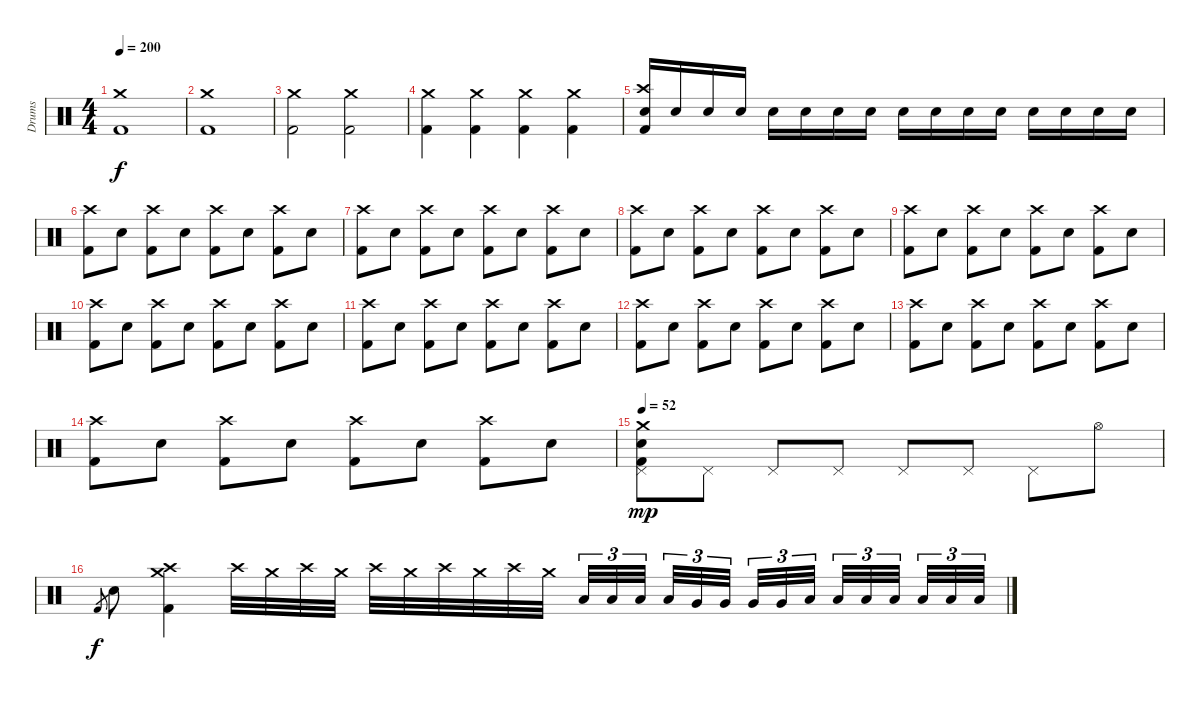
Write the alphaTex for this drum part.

\track ("Drums" "Drums") {instrument percussion}
\staff {score}
\articulation defaults
\ts (4 4)
\tempo 200
\clef neutral
\ks c
("Crash medium (hit)" "Kick (hit) 2").1{dy f} |
("Crash medium (hit)" "Kick (hit) 2").1 |
("Crash medium (hit)" "Kick (hit) 2").2 ("Crash medium (hit)" "Kick (hit) 2").2 |
("Crash medium (hit)" "Kick (hit) 2").4 ("Crash medium (hit)" "Kick (hit) 2").4 ("Crash medium (hit)" "Kick (hit) 2").4 ("Crash medium (hit)" "Kick (hit) 2").4 |
("Crash high (hit)" "Electric Snare (hit)" "Kick (hit) 2").16 "Electric Snare (hit)".16 "Electric Snare (hit)".16 "Electric Snare (hit)".16 "Electric Snare (hit)".16 "Electric Snare (hit)".16 "Electric Snare (hit)".16 "Electric Snare (hit)".16 "Electric Snare (hit)".16 "Electric Snare (hit)".16 "Electric Snare (hit)".16 "Electric Snare (hit)".16 "Electric Snare (hit)".16 "Electric Snare (hit)".16 "Electric Snare (hit)".16 "Electric Snare (hit)".16 |
("Crash high (hit)" "Kick (hit) 2").8 "Electric Snare (hit)".8 ("Crash high (hit)" "Kick (hit) 2").8 "Electric Snare (hit)".8 ("Crash high (hit)" "Kick (hit) 2").8 "Electric Snare (hit)".8 ("Crash high (hit)" "Kick (hit) 2").8 "Electric Snare (hit)".8 |
("Crash high (hit)" "Kick (hit) 2").8 "Electric Snare (hit)".8 ("Crash high (hit)" "Kick (hit) 2").8 "Electric Snare (hit)".8 ("Crash high (hit)" "Kick (hit) 2").8 "Electric Snare (hit)".8 ("Crash high (hit)" "Kick (hit) 2").8 "Electric Snare (hit)".8 |
("Crash high (hit)" "Kick (hit) 2").8 "Electric Snare (hit)".8 ("Crash high (hit)" "Kick (hit) 2").8 "Electric Snare (hit)".8 ("Crash high (hit)" "Kick (hit) 2").8 "Electric Snare (hit)".8 ("Crash high (hit)" "Kick (hit) 2").8 "Electric Snare (hit)".8 |
("Crash high (hit)" "Kick (hit) 2").8 "Electric Snare (hit)".8 ("Crash high (hit)" "Kick (hit) 2").8 "Electric Snare (hit)".8 ("Crash high (hit)" "Kick (hit) 2").8 "Electric Snare (hit)".8 ("Crash high (hit)" "Kick (hit) 2").8 "Electric Snare (hit)".8 |
("Crash high (hit)" "Kick (hit) 2").8 "Electric Snare (hit)".8 ("Crash high (hit)" "Kick (hit) 2").8 "Electric Snare (hit)".8 ("Crash high (hit)" "Kick (hit) 2").8 "Electric Snare (hit)".8 ("Crash high (hit)" "Kick (hit) 2").8 "Electric Snare (hit)".8 |
("Crash high (hit)" "Kick (hit) 2").8 "Electric Snare (hit)".8 ("Crash high (hit)" "Kick (hit) 2").8 "Electric Snare (hit)".8 ("Crash high (hit)" "Kick (hit) 2").8 "Electric Snare (hit)".8 ("Crash high (hit)" "Kick (hit) 2").8 "Electric Snare (hit)".8 |
("Crash high (hit)" "Kick (hit) 2").8 "Electric Snare (hit)".8 ("Crash high (hit)" "Kick (hit) 2").8 "Electric Snare (hit)".8 ("Crash high (hit)" "Kick (hit) 2").8 "Electric Snare (hit)".8 ("Crash high (hit)" "Kick (hit) 2").8 "Electric Snare (hit)".8 |
("Crash high (hit)" "Kick (hit) 2").8 "Electric Snare (hit)".8 ("Crash high (hit)" "Kick (hit) 2").8 "Electric Snare (hit)".8 ("Crash high (hit)" "Kick (hit) 2").8 "Electric Snare (hit)".8 ("Crash high (hit)" "Kick (hit) 2").8 "Electric Snare (hit)".8 |
("Crash high (hit)" "Kick (hit) 2").8 "Electric Snare (hit)".8 ("Crash high (hit)" "Kick (hit) 2").8 "Electric Snare (hit)".8 ("Crash high (hit)" "Kick (hit) 2").8 "Electric Snare (hit)".8 ("Crash high (hit)" "Kick (hit) 2").8 "Electric Snare (hit)".8 |
\tempo 52
("Crash medium (hit)" "Pedal Hi-Hat (hit)" "Electric Snare (hit)" "Kick (hit) 2").8{dy mp} "Pedal Hi-Hat (hit)".8 "Pedal Hi-Hat (hit)".8 "Pedal Hi-Hat (hit)".8 "Pedal Hi-Hat (hit)".8 "Pedal Hi-Hat (hit)".8 "Pedal Hi-Hat (hit)".8 "Hi-Hat (open)".8 |
"Kick (hit) 2".8{gr dy f} "Electric Snare (hit)".8 ("Crash medium (hit)" "Crash high (hit)" "Kick (hit) 2").4 "Crash high (hit)".32 "Crash medium (hit)".32 "Crash high (hit)".32 "Crash medium (hit)".32 "Crash high (hit)".32 "Crash medium (hit)".32 "Crash high (hit)".32 "Crash medium (hit)".32 "Crash high (hit)".32 "Crash medium (hit)".32 "Low Tom (hit)".32{tu (3 2)} "Low Tom (hit)".32{tu (3 2)} "Low Tom (hit)".32{tu (3 2)} "Low Tom (hit)".32{tu (3 2)} "Very Low Tom (hit)".32{tu (3 2)} "Very Low Tom (hit)".32{tu (3 2)} "Very Low Tom (hit)".32{tu (3 2)} "Very Low Tom (hit)".32{tu (3 2)} "Low Floor Tom (hit)".32{tu (3 2)} "Low Floor Tom (hit)".32{tu (3 2)} "Low Floor Tom (hit)".32{tu (3 2)} "Low Floor Tom (hit)".32{tu (3 2)} "Low Tom (hit)".32{tu (3 2)} "Low Tom (hit)".32{tu (3 2)} "Low Tom (hit)".32{tu (3 2)}
